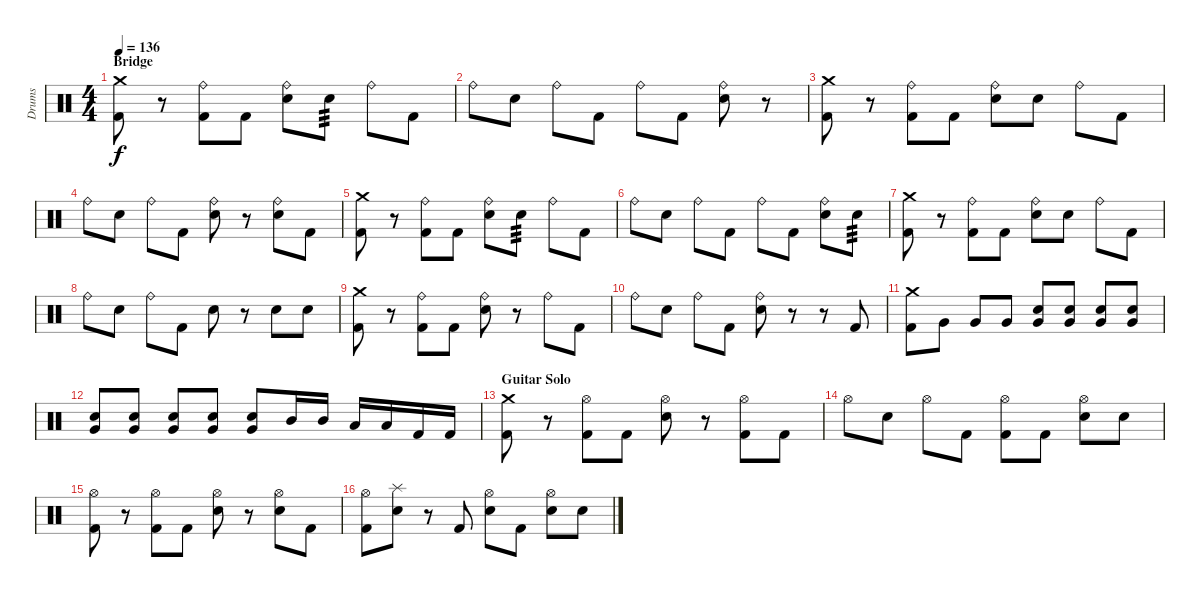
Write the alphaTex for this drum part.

\track ("Drums" "Drums") {instrument percussion}
\staff {score}
\articulation defaults
\ts (4 4)
\section ("" "Bridge")
\tempo 136
\clef neutral
\ks c
("Crash medium (hit)" "Kick (hit) 2").8{dy f} r.8 ("Ride (bell)" "Kick (hit) 2").8 "Kick (hit) 2".8 ("Ride (bell)" "Electric Snare (hit)").8 "Electric Snare (hit)".8{tp 3} "Ride (bell)".8 "Kick (hit) 2".8 |
"Ride (bell)".8 "Electric Snare (hit)".8 "Ride (bell)".8 "Kick (hit) 2".8 "Ride (bell)".8 "Kick (hit) 2".8 ("Ride (bell)" "Electric Snare (hit)").8 r.8 |
("Crash medium (hit)" "Kick (hit) 2").8 r.8 ("Ride (bell)" "Kick (hit) 2").8 "Kick (hit) 2".8 ("Ride (bell)" "Electric Snare (hit)").8 "Electric Snare (hit)".8 "Ride (bell)".8 "Kick (hit) 2".8 |
"Ride (bell)".8 "Electric Snare (hit)".8 "Ride (bell)".8 "Kick (hit) 2".8 ("Ride (bell)" "Electric Snare (hit)").8 r.8 ("Ride (bell)" "Electric Snare (hit)").8 "Kick (hit) 2".8 |
("Crash medium (hit)" "Kick (hit) 2").8 r.8 ("Ride (bell)" "Kick (hit) 2").8 "Kick (hit) 2".8 ("Ride (bell)" "Electric Snare (hit)").8 "Electric Snare (hit)".8{tp 3} "Ride (bell)".8 "Kick (hit) 2".8 |
"Ride (bell)".8 "Electric Snare (hit)".8 "Ride (bell)".8 "Kick (hit) 2".8 "Ride (bell)".8 "Kick (hit) 2".8 ("Ride (bell)" "Electric Snare (hit)").8 "Electric Snare (hit)".8{tp 3} |
("Crash medium (hit)" "Kick (hit) 2").8 r.8 ("Ride (bell)" "Kick (hit) 2").8 "Kick (hit) 2".8 ("Ride (bell)" "Electric Snare (hit)").8 "Electric Snare (hit)".8 "Ride (bell)".8 "Kick (hit) 2".8 |
"Ride (bell)".8 "Electric Snare (hit)".8 "Ride (bell)".8 "Kick (hit) 2".8 "Electric Snare (hit)".8 r.8 "Electric Snare (hit)".8 "Electric Snare (hit)".8 |
("Crash medium (hit)" "Kick (hit) 2").8 r.8 ("Ride (bell)" "Kick (hit) 2").8 "Kick (hit) 2".8 ("Ride (bell)" "Electric Snare (hit)").8 r.8 "Ride (bell)".8 "Kick (hit) 2".8 |
"Ride (bell)".8 "Electric Snare (hit)".8 "Ride (bell)".8 "Kick (hit) 2".8 ("Ride (bell)" "Electric Snare (hit)").8 r.8 r.8 "Kick (hit) 2".8 |
("Crash medium (hit)" "Kick (hit) 2").8 "Very Low Tom (hit)".8 "Very Low Tom (hit)".8 "Very Low Tom (hit)".8 ("Electric Snare (hit)" "Very Low Tom (hit)").8 ("Electric Snare (hit)" "Very Low Tom (hit)").8 ("Electric Snare (hit)" "Very Low Tom (hit)").8 ("Electric Snare (hit)" "Very Low Tom (hit)").8 |
("Electric Snare (hit)" "Very Low Tom (hit)").8 ("Electric Snare (hit)" "Very Low Tom (hit)").8 ("Electric Snare (hit)" "Very Low Tom (hit)").8 ("Electric Snare (hit)" "Very Low Tom (hit)").8 ("Electric Snare (hit)" "Very Low Tom (hit)").8 "Mid Tom (hit)".16 "Mid Tom (hit)".16 "Low Tom (hit)".16 "Low Tom (hit)".16 "Kick (hit) 2".16 "Kick (hit) 2".16 |
\section ("" "Guitar Solo")
("Crash medium (hit)" "Kick (hit) 2").8 r.8 ("Hi-Hat (open)" "Kick (hit) 2").8 "Kick (hit) 2".8 ("Hi-Hat (open)" "Electric Snare (hit)").8 r.8 ("Hi-Hat (open)" "Kick (hit) 2").8 "Kick (hit) 2".8 |
"Hi-Hat (open)".8 "Electric Snare (hit)".8 "Hi-Hat (open)".8 "Kick (hit) 2".8 ("Hi-Hat (open)" "Kick (hit) 2").8 "Kick (hit) 2".8 ("Hi-Hat (open)" "Electric Snare (hit)").8 "Electric Snare (hit)".8 |
("Hi-Hat (open)" "Kick (hit) 2").8 r.8 ("Hi-Hat (open)" "Kick (hit) 2").8 "Kick (hit) 2".8 ("Hi-Hat (open)" "Electric Snare (hit)").8 r.8 ("Hi-Hat (open)" "Electric Snare (hit)").8 "Kick (hit) 2".8 |
("Hi-Hat (open)" "Kick (hit) 2").8 ("Splash (hit)" "Electric Snare (hit)").8 r.8 "Kick (hit) 2".8 ("Hi-Hat (open)" "Electric Snare (hit)").8 "Kick (hit) 2".8 ("Hi-Hat (open)" "Electric Snare (hit)").8 "Electric Snare (hit)".8
